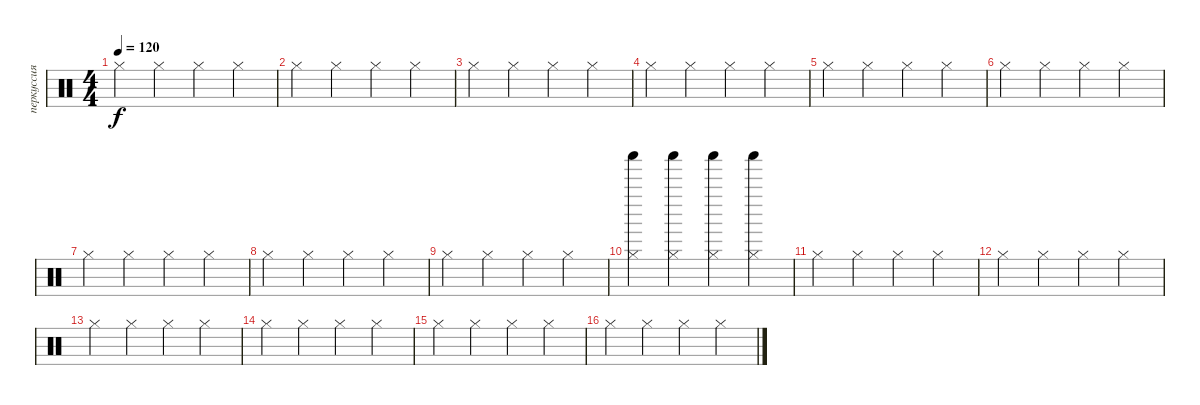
\track ("перкуссия" "перкуссия") {instrument percussion}
\staff {score}
\articulation defaults
\ts (4 4)
\tempo 120
\clef neutral
\ks c "Hi-Hat (closed)".4{dy f} "Hi-Hat (closed)".4 "Hi-Hat (closed)".4 "Hi-Hat (closed)".4
|
"Hi-Hat (closed)".4 "Hi-Hat (closed)".4 "Hi-Hat (closed)".4 "Hi-Hat (closed)".4 |
"Hi-Hat (closed)".4 "Hi-Hat (closed)".4 "Hi-Hat (closed)".4 "Hi-Hat (closed)".4 |
"Hi-Hat (closed)".4 "Hi-Hat (closed)".4 "Hi-Hat (closed)".4 "Hi-Hat (closed)".4 |
"Hi-Hat (closed)".4 "Hi-Hat (closed)".4 "Hi-Hat (closed)".4 "Hi-Hat (closed)".4 |
"Hi-Hat (closed)".4 "Hi-Hat (closed)".4 "Hi-Hat (closed)".4 "Hi-Hat (closed)".4 |
"Hi-Hat (closed)".4 "Hi-Hat (closed)".4 "Hi-Hat (closed)".4 "Hi-Hat (closed)".4 |
"Hi-Hat (closed)".4 "Hi-Hat (closed)".4 "Hi-Hat (closed)".4 "Hi-Hat (closed)".4 |
"Hi-Hat (closed)".4 "Hi-Hat (closed)".4 "Hi-Hat (closed)".4 "Hi-Hat (closed)".4 |
("Shaker (hit)" "Hi-Hat (closed)").4 ("Shaker (hit)" "Hi-Hat (closed)").4 ("Shaker (hit)" "Hi-Hat (closed)").4 ("Shaker (hit)" "Hi-Hat (closed)").4 |
"Hi-Hat (closed)".4 "Hi-Hat (closed)".4 "Hi-Hat (closed)".4 "Hi-Hat (closed)".4 |
"Hi-Hat (closed)".4 "Hi-Hat (closed)".4 "Hi-Hat (closed)".4 "Hi-Hat (closed)".4 |
"Hi-Hat (closed)".4 "Hi-Hat (closed)".4 "Hi-Hat (closed)".4 "Hi-Hat (closed)".4 |
"Hi-Hat (closed)".4 "Hi-Hat (closed)".4 "Hi-Hat (closed)".4 "Hi-Hat (closed)".4 |
"Hi-Hat (closed)".4 "Hi-Hat (closed)".4 "Hi-Hat (closed)".4 "Hi-Hat (closed)".4 |
"Hi-Hat (closed)".4 "Hi-Hat (closed)".4 "Hi-Hat (closed)".4 "Hi-Hat (closed)".4
